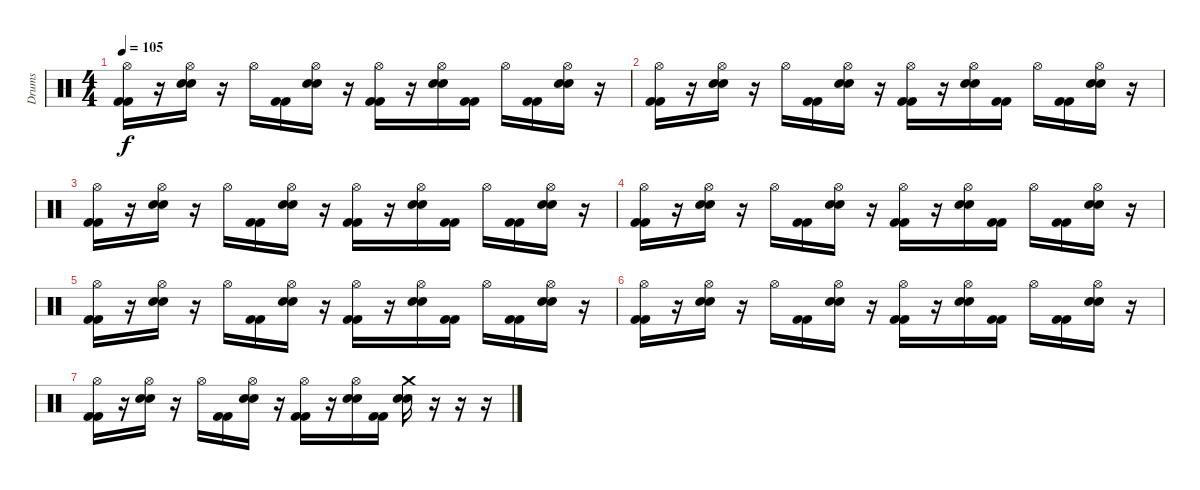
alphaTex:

\track ("Drums" "Drums") {instrument percussion}
\staff {score}
\articulation defaults
\ts (4 4)
\tempo 105
\clef neutral
\ks c
("Hi-Hat (open)" "Kick (hit) 2" "Kick (hit) 2").16{dy f} r.16 ("Hi-Hat (open)" "Electric Snare (hit)" "Snare (hit) 2").16 r.16 "Hi-Hat (open)".16 ("Kick (hit) 2" "Kick (hit) 2").16 ("Hi-Hat (open)" "Electric Snare (hit)" "Snare (hit) 2").16 r.16 ("Hi-Hat (open)" "Kick (hit) 2" "Kick (hit) 2").16 r.16 ("Hi-Hat (open)" "Electric Snare (hit)" "Snare (hit) 2").16 ("Kick (hit) 2" "Kick (hit) 2").16 "Hi-Hat (open)".16 ("Kick (hit) 2" "Kick (hit) 2").16 ("Hi-Hat (open)" "Electric Snare (hit)" "Snare (hit) 2").16 r.16 |
("Hi-Hat (open)" "Kick (hit) 2" "Kick (hit) 2").16 r.16 ("Hi-Hat (open)" "Electric Snare (hit)" "Snare (hit) 2").16 r.16 "Hi-Hat (open)".16 ("Kick (hit) 2" "Kick (hit) 2").16 ("Hi-Hat (open)" "Electric Snare (hit)" "Snare (hit) 2").16 r.16 ("Hi-Hat (open)" "Kick (hit) 2" "Kick (hit) 2").16 r.16 ("Hi-Hat (open)" "Electric Snare (hit)" "Snare (hit) 2").16 ("Kick (hit) 2" "Kick (hit) 2").16 "Hi-Hat (open)".16 ("Kick (hit) 2" "Kick (hit) 2").16 ("Hi-Hat (open)" "Electric Snare (hit)" "Snare (hit) 2").16 r.16 |
("Hi-Hat (open)" "Kick (hit) 2" "Kick (hit) 2").16 r.16 ("Hi-Hat (open)" "Electric Snare (hit)" "Snare (hit) 2").16 r.16 "Hi-Hat (open)".16 ("Kick (hit) 2" "Kick (hit) 2").16 ("Hi-Hat (open)" "Electric Snare (hit)" "Snare (hit) 2").16 r.16 ("Hi-Hat (open)" "Kick (hit) 2" "Kick (hit) 2").16 r.16 ("Hi-Hat (open)" "Electric Snare (hit)" "Snare (hit) 2").16 ("Kick (hit) 2" "Kick (hit) 2").16 "Hi-Hat (open)".16 ("Kick (hit) 2" "Kick (hit) 2").16 ("Hi-Hat (open)" "Electric Snare (hit)" "Snare (hit) 2").16 r.16 |
("Hi-Hat (open)" "Kick (hit) 2" "Kick (hit) 2").16 r.16 ("Hi-Hat (open)" "Electric Snare (hit)" "Snare (hit) 2").16 r.16 "Hi-Hat (open)".16 ("Kick (hit) 2" "Kick (hit) 2").16 ("Hi-Hat (open)" "Electric Snare (hit)" "Snare (hit) 2").16 r.16 ("Hi-Hat (open)" "Kick (hit) 2" "Kick (hit) 2").16 r.16 ("Hi-Hat (open)" "Electric Snare (hit)" "Snare (hit) 2").16 ("Kick (hit) 2" "Kick (hit) 2").16 "Hi-Hat (open)".16 ("Kick (hit) 2" "Kick (hit) 2").16 ("Hi-Hat (open)" "Electric Snare (hit)" "Snare (hit) 2").16 r.16 |
("Hi-Hat (open)" "Kick (hit) 2" "Kick (hit) 2").16 r.16 ("Hi-Hat (open)" "Electric Snare (hit)" "Snare (hit) 2").16 r.16 "Hi-Hat (open)".16 ("Kick (hit) 2" "Kick (hit) 2").16 ("Hi-Hat (open)" "Electric Snare (hit)" "Snare (hit) 2").16 r.16 ("Hi-Hat (open)" "Kick (hit) 2" "Kick (hit) 2").16 r.16 ("Hi-Hat (open)" "Electric Snare (hit)" "Snare (hit) 2").16 ("Kick (hit) 2" "Kick (hit) 2").16 "Hi-Hat (open)".16 ("Kick (hit) 2" "Kick (hit) 2").16 ("Hi-Hat (open)" "Electric Snare (hit)" "Snare (hit) 2").16 r.16 |
("Hi-Hat (open)" "Kick (hit) 2" "Kick (hit) 2").16 r.16 ("Hi-Hat (open)" "Electric Snare (hit)" "Snare (hit) 2").16 r.16 "Hi-Hat (open)".16 ("Kick (hit) 2" "Kick (hit) 2").16 ("Hi-Hat (open)" "Electric Snare (hit)" "Snare (hit) 2").16 r.16 ("Hi-Hat (open)" "Kick (hit) 2" "Kick (hit) 2").16 r.16 ("Hi-Hat (open)" "Electric Snare (hit)" "Snare (hit) 2").16 ("Kick (hit) 2" "Kick (hit) 2").16 "Hi-Hat (open)".16 ("Kick (hit) 2" "Kick (hit) 2").16 ("Hi-Hat (open)" "Electric Snare (hit)" "Snare (hit) 2").16 r.16 |
("Hi-Hat (open)" "Kick (hit) 2" "Kick (hit) 2").16 r.16 ("Hi-Hat (open)" "Electric Snare (hit)" "Snare (hit) 2").16 r.16 "Hi-Hat (open)".16 ("Kick (hit) 2" "Kick (hit) 2").16 ("Hi-Hat (open)" "Electric Snare (hit)" "Snare (hit) 2").16 r.16 ("Hi-Hat (open)" "Kick (hit) 2" "Kick (hit) 2").16 r.16 ("Hi-Hat (open)" "Electric Snare (hit)" "Snare (hit) 2").16 ("Kick (hit) 2" "Kick (hit) 2").16 ("Crash medium (hit)" "Electric Snare (hit)" "Snare (hit) 2").16 r.16 r.16 r.16
